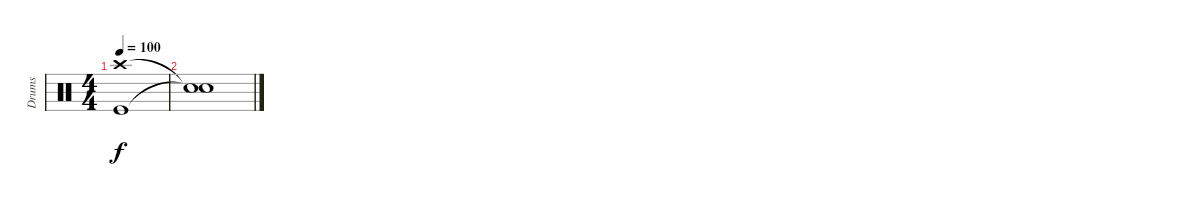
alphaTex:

\track ("Drums" "Drums") {instrument percussion}
\staff {score}
\articulation defaults
\ts (4 4)
\tempo 100
\clef neutral
\ks c
("Crash high (hit)" "Kick (hit)").1{dy f} |
("Snare (hit)"{t} "Snare (hit)"{t}).1
